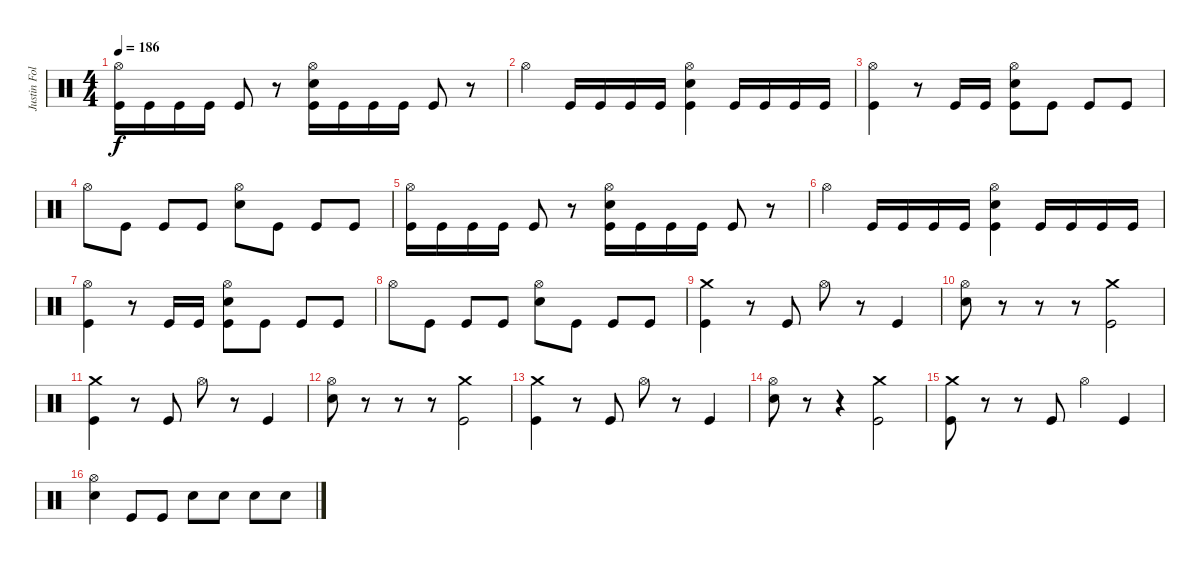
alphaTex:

\track ("Justin Foley" "Justin Fol") {instrument percussion}
\staff {score}
\articulation defaults
\ts (4 4)
\tempo 186
\clef neutral
\ks c
("Hi-Hat (open)" "Kick (hit)").16{dy f} "Kick (hit)".16 "Kick (hit)".16 "Kick (hit)".16 "Kick (hit)".8 r.8 ("Hi-Hat (open)" "Electric Snare (hit)" "Kick (hit)").16 "Kick (hit)".16 "Kick (hit)".16 "Kick (hit)".16 "Kick (hit)".8 r.8 |
"Hi-Hat (open)".4 "Kick (hit)".16 "Kick (hit)".16 "Kick (hit)".16 "Kick (hit)".16 ("Hi-Hat (open)" "Electric Snare (hit)" "Kick (hit)").4 "Kick (hit)".16 "Kick (hit)".16 "Kick (hit)".16 "Kick (hit)".16 |
("Hi-Hat (open)" "Kick (hit)").4 r.8 "Kick (hit)".16 "Kick (hit)".16 ("Hi-Hat (open)" "Electric Snare (hit)" "Kick (hit)").8 "Kick (hit)".8 "Kick (hit)".8 "Kick (hit)".8 |
"Hi-Hat (open)".8 "Kick (hit)".8 "Kick (hit)".8 "Kick (hit)".8 ("Hi-Hat (open)" "Electric Snare (hit)").8 "Kick (hit)".8 "Kick (hit)".8 "Kick (hit)".8 |
("Hi-Hat (open)" "Kick (hit)").16 "Kick (hit)".16 "Kick (hit)".16 "Kick (hit)".16 "Kick (hit)".8 r.8 ("Hi-Hat (open)" "Electric Snare (hit)" "Kick (hit)").16 "Kick (hit)".16 "Kick (hit)".16 "Kick (hit)".16 "Kick (hit)".8 r.8 |
"Hi-Hat (open)".4 "Kick (hit)".16 "Kick (hit)".16 "Kick (hit)".16 "Kick (hit)".16 ("Hi-Hat (open)" "Electric Snare (hit)" "Kick (hit)").4 "Kick (hit)".16 "Kick (hit)".16 "Kick (hit)".16 "Kick (hit)".16 |
("Hi-Hat (open)" "Kick (hit)").4 r.8 "Kick (hit)".16 "Kick (hit)".16 ("Hi-Hat (open)" "Electric Snare (hit)" "Kick (hit)").8 "Kick (hit)".8 "Kick (hit)".8 "Kick (hit)".8 |
"Hi-Hat (open)".8 "Kick (hit)".8 "Kick (hit)".8 "Kick (hit)".8 ("Hi-Hat (open)" "Electric Snare (hit)").8 "Kick (hit)".8 "Kick (hit)".8 "Kick (hit)".8 |
("Crash medium (hit)" "Kick (hit)").4 r.8 "Kick (hit)".8 "Hi-Hat (open)".8 r.8 "Kick (hit)".4 |
("Hi-Hat (open)" "Electric Snare (hit)").8 r.8 r.8 r.8 ("Crash medium (hit)" "Kick (hit)").2 |
("Crash medium (hit)" "Kick (hit)").4 r.8 "Kick (hit)".8 "Hi-Hat (open)".8 r.8 "Kick (hit)".4 |
("Hi-Hat (open)" "Electric Snare (hit)").8 r.8 r.8 r.8 ("Crash medium (hit)" "Kick (hit)").2 |
("Crash medium (hit)" "Kick (hit)").4 r.8 "Kick (hit)".8 "Hi-Hat (open)".8 r.8 "Kick (hit)".4 |
("Hi-Hat (open)" "Electric Snare (hit)").8 r.8 r.4 ("Crash medium (hit)" "Kick (hit)").2 |
("Crash medium (hit)" "Kick (hit)").8 r.8 r.8 "Kick (hit)".8 "Hi-Hat (open)".4 "Kick (hit)".4 |
("Hi-Hat (open)" "Electric Snare (hit)").4 "Kick (hit)".8 "Kick (hit)".8 "Electric Snare (hit)".8 "Electric Snare (hit)".8 "Electric Snare (hit)".8 "Electric Snare (hit)".8
